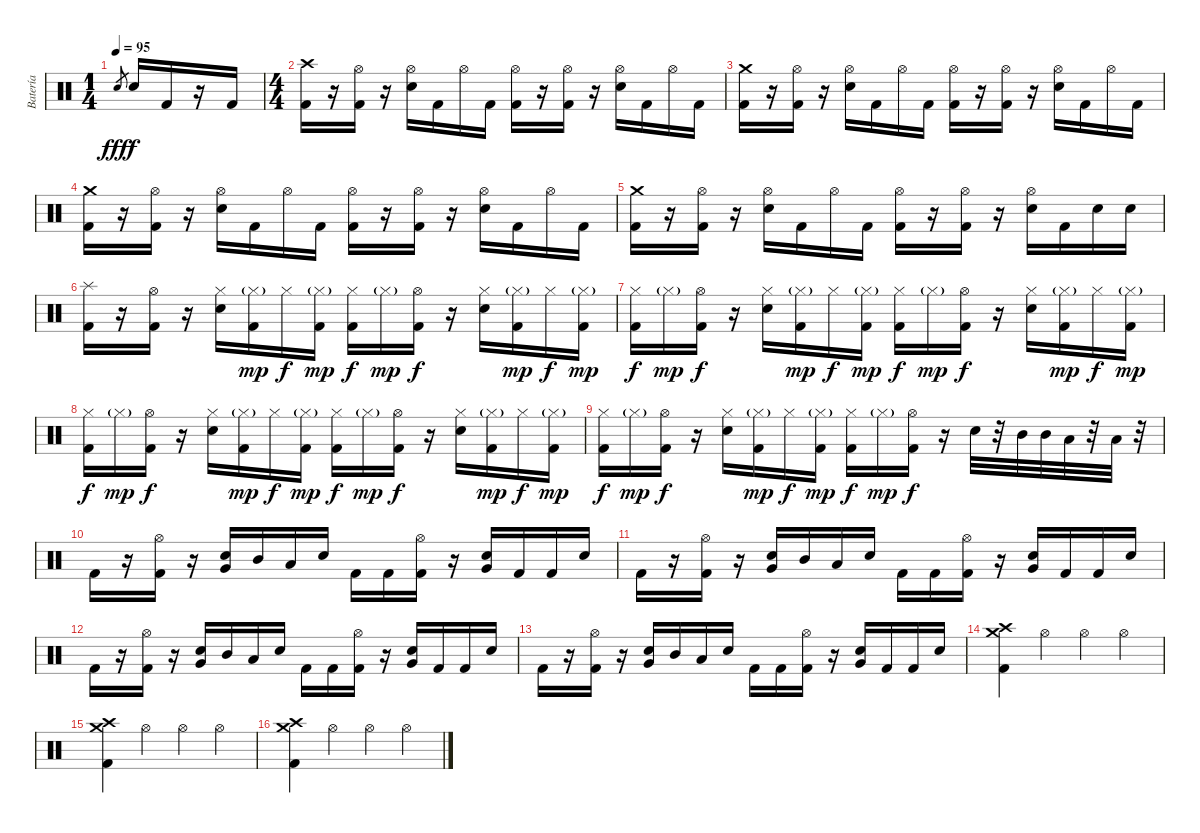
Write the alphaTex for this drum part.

\track ("Batería" "Batería") {instrument percussion}
\staff {score}
\articulation defaults
\ts (1 4)
\tempo 95
\clef neutral
\ks c "Electric Snare (hit)".8{gr dy fff} "Electric Snare (hit)".16{dy f} "Kick (hit) 2".16
r.16 "Kick (hit) 2".16 |
\ts (4 4)
("Crash high (hit)" "Kick (hit) 2").16 r.16 ("Hi-Hat (open)" "Kick (hit) 2").16 r.16 ("Hi-Hat (open)" "Electric Snare (hit)").16 "Kick (hit) 2".16 "Hi-Hat (open)".16 "Kick (hit) 2".16 ("Hi-Hat (open)" "Kick (hit) 2").16 r.16 ("Hi-Hat (open)" "Kick (hit) 2").16 r.16 ("Hi-Hat (open)" "Electric Snare (hit)").16 "Kick (hit) 2".16 "Hi-Hat (open)".16 "Kick (hit) 2".16 |
("Crash medium (hit)" "Kick (hit) 2").16 r.16 ("Hi-Hat (open)" "Kick (hit) 2").16 r.16 ("Hi-Hat (open)" "Electric Snare (hit)").16 "Kick (hit) 2".16 "Hi-Hat (open)".16 "Kick (hit) 2".16 ("Hi-Hat (open)" "Kick (hit) 2").16 r.16 ("Hi-Hat (open)" "Kick (hit) 2").16 r.16 ("Hi-Hat (open)" "Electric Snare (hit)").16 "Kick (hit) 2".16 "Hi-Hat (open)".16 "Kick (hit) 2".16 |
("Crash medium (hit)" "Kick (hit) 2").16 r.16 ("Hi-Hat (open)" "Kick (hit) 2").16 r.16 ("Hi-Hat (open)" "Electric Snare (hit)").16 "Kick (hit) 2".16 "Hi-Hat (open)".16 "Kick (hit) 2".16 ("Hi-Hat (open)" "Kick (hit) 2").16 r.16 ("Hi-Hat (open)" "Kick (hit) 2").16 r.16 ("Hi-Hat (open)" "Electric Snare (hit)").16 "Kick (hit) 2".16 "Hi-Hat (open)".16 "Kick (hit) 2".16 |
("Crash medium (hit)" "Kick (hit) 2").16 r.16 ("Hi-Hat (open)" "Kick (hit) 2").16 r.16 ("Hi-Hat (open)" "Electric Snare (hit)").16 "Kick (hit) 2".16 "Hi-Hat (open)".16 "Kick (hit) 2".16 ("Hi-Hat (open)" "Kick (hit) 2").16 r.16 ("Hi-Hat (open)" "Kick (hit) 2").16 r.16 ("Hi-Hat (open)" "Electric Snare (hit)").16 "Kick (hit) 2".16 "Electric Snare (hit)".16 "Electric Snare (hit)".16 |
("Splash (hit)" "Kick (hit) 2").16 r.16 ("Hi-Hat (open)" "Kick (hit) 2").16 r.16 ("Hi-Hat (closed)" "Electric Snare (hit)").16 ("Hi-Hat (closed)"{g} "Kick (hit) 2").16{dy mp} "Hi-Hat (closed)".16{dy f} ("Hi-Hat (closed)"{g} "Kick (hit) 2").16{dy mp} ("Hi-Hat (closed)" "Kick (hit) 2").16{dy f} "Hi-Hat (closed)"{g}.16{dy mp} ("Hi-Hat (open)" "Kick (hit) 2").16{dy f} r.16 ("Hi-Hat (closed)" "Electric Snare (hit)").16 ("Hi-Hat (closed)"{g} "Kick (hit) 2").16{dy mp} "Hi-Hat (closed)".16{dy f} ("Hi-Hat (closed)"{g} "Kick (hit) 2").16{dy mp} |
("Hi-Hat (closed)" "Kick (hit) 2").16{dy f} "Hi-Hat (closed)"{g}.16{dy mp} ("Hi-Hat (open)" "Kick (hit) 2").16{dy f} r.16 ("Hi-Hat (closed)" "Electric Snare (hit)").16 ("Hi-Hat (closed)"{g} "Kick (hit) 2").16{dy mp} "Hi-Hat (closed)".16{dy f} ("Hi-Hat (closed)"{g} "Kick (hit) 2").16{dy mp} ("Hi-Hat (closed)" "Kick (hit) 2").16{dy f} "Hi-Hat (closed)"{g}.16{dy mp} ("Hi-Hat (open)" "Kick (hit) 2").16{dy f} r.16 ("Hi-Hat (closed)" "Electric Snare (hit)").16 ("Hi-Hat (closed)"{g} "Kick (hit) 2").16{dy mp} "Hi-Hat (closed)".16{dy f} ("Hi-Hat (closed)"{g} "Kick (hit) 2").16{dy mp} |
("Hi-Hat (closed)" "Kick (hit) 2").16{dy f} "Hi-Hat (closed)"{g}.16{dy mp} ("Hi-Hat (open)" "Kick (hit) 2").16{dy f} r.16 ("Hi-Hat (closed)" "Electric Snare (hit)").16 ("Hi-Hat (closed)"{g} "Kick (hit) 2").16{dy mp} "Hi-Hat (closed)".16{dy f} ("Hi-Hat (closed)"{g} "Kick (hit) 2").16{dy mp} ("Hi-Hat (closed)" "Kick (hit) 2").16{dy f} "Hi-Hat (closed)"{g}.16{dy mp} ("Hi-Hat (open)" "Kick (hit) 2").16{dy f} r.16 ("Hi-Hat (closed)" "Electric Snare (hit)").16 ("Hi-Hat (closed)"{g} "Kick (hit) 2").16{dy mp} "Hi-Hat (closed)".16{dy f} ("Hi-Hat (closed)"{g} "Kick (hit) 2").16{dy mp} |
("Hi-Hat (closed)" "Kick (hit) 2").16{dy f} "Hi-Hat (closed)"{g}.16{dy mp} ("Hi-Hat (open)" "Kick (hit) 2").16{dy f} r.16 ("Hi-Hat (closed)" "Electric Snare (hit)").16 ("Hi-Hat (closed)"{g} "Kick (hit) 2").16{dy mp} "Hi-Hat (closed)".16{dy f} ("Hi-Hat (closed)"{g} "Kick (hit) 2").16{dy mp} ("Hi-Hat (closed)" "Kick (hit) 2").16{dy f} "Hi-Hat (closed)"{g}.16{dy mp} ("Hi-Hat (open)" "Kick (hit) 2").16{dy f} r.16 "Electric Snare (hit)".32 r.32 "Mid Tom (hit)".32 "Mid Tom (hit)".32 "Low Tom (hit)".32 r.32 "Low Tom (hit)".32 r.32 |
"Kick (hit) 2".16 r.16 ("Hi-Hat (open)" "Kick (hit) 2").16 r.16 ("Electric Snare (hit)" "Very Low Tom (hit)").16 "Mid Tom (hit)".16 "Low Tom (hit)".16 "Electric Snare (hit)".16 "Kick (hit) 2".16 "Kick (hit) 2".16 ("Hi-Hat (open)" "Kick (hit) 2").16 r.16 ("Electric Snare (hit)" "Very Low Tom (hit)").16 "Kick (hit) 2".16 "Kick (hit) 2".16 "Electric Snare (hit)".16 |
"Kick (hit) 2".16 r.16 ("Hi-Hat (open)" "Kick (hit) 2").16 r.16 ("Electric Snare (hit)" "Very Low Tom (hit)").16 "Mid Tom (hit)".16 "Low Tom (hit)".16 "Electric Snare (hit)".16 "Kick (hit) 2".16 "Kick (hit) 2".16 ("Hi-Hat (open)" "Kick (hit) 2").16 r.16 ("Electric Snare (hit)" "Very Low Tom (hit)").16 "Kick (hit) 2".16 "Kick (hit) 2".16 "Electric Snare (hit)".16 |
"Kick (hit) 2".16 r.16 ("Hi-Hat (open)" "Kick (hit) 2").16 r.16 ("Electric Snare (hit)" "Very Low Tom (hit)").16 "Mid Tom (hit)".16 "Low Tom (hit)".16 "Electric Snare (hit)".16 "Kick (hit) 2".16 "Kick (hit) 2".16 ("Hi-Hat (open)" "Kick (hit) 2").16 r.16 ("Electric Snare (hit)" "Very Low Tom (hit)").16 "Kick (hit) 2".16 "Kick (hit) 2".16 "Electric Snare (hit)".16 |
"Kick (hit) 2".16 r.16 ("Hi-Hat (open)" "Kick (hit) 2").16 r.16 ("Electric Snare (hit)" "Very Low Tom (hit)").16 "Mid Tom (hit)".16 "Low Tom (hit)".16 "Electric Snare (hit)".16 "Kick (hit) 2".16 "Kick (hit) 2".16 ("Hi-Hat (open)" "Kick (hit) 2").16 r.16 ("Electric Snare (hit)" "Very Low Tom (hit)").16 "Kick (hit) 2".16 "Kick (hit) 2".16 "Electric Snare (hit)".16 |
("Crash high (hit)" "Crash medium (hit)" "Kick (hit) 2").4 "Hi-Hat (open)".4 "Hi-Hat (open)".4 "Hi-Hat (open)".4 |
("Crash high (hit)" "Crash medium (hit)" "Kick (hit) 2").4 "Hi-Hat (open)".4 "Hi-Hat (open)".4 "Hi-Hat (open)".4 |
("Crash high (hit)" "Crash medium (hit)" "Kick (hit) 2").4 "Hi-Hat (open)".4 "Hi-Hat (open)".4 "Hi-Hat (open)".4
